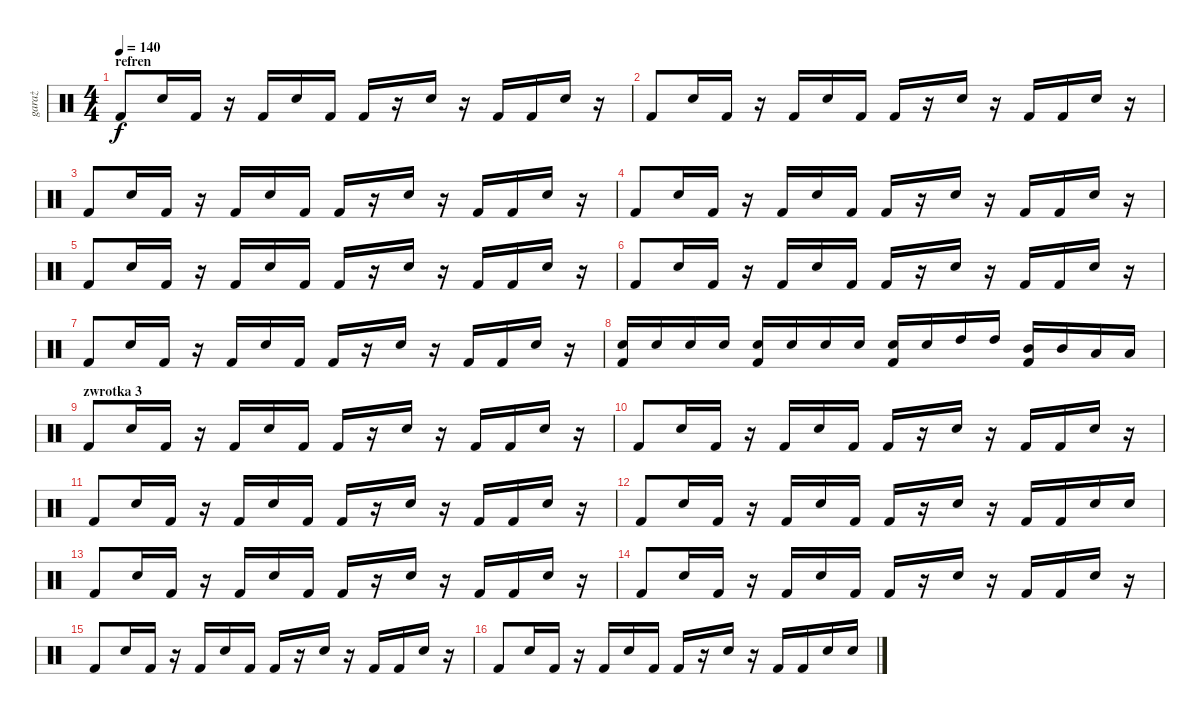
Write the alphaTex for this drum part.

\track ("garaż" "garaż") {instrument percussion}
\staff {score}
\articulation defaults
\ts (4 4)
\section ("" "refren")
\tempo 140
\clef neutral
\ks c "Kick (hit) 2".8{dy f} "Snare (hit) 2".16 "Kick (hit) 2".16
r.16 "Kick (hit) 2".16 "Snare (hit) 2".16 "Kick (hit) 2".16 "Kick (hit) 2".16 r.16 "Snare (hit) 2".16 r.16 "Kick (hit) 2".16 "Kick (hit) 2".16 "Snare (hit) 2".16 r.16 |
"Kick (hit) 2".8 "Snare (hit) 2".16 "Kick (hit) 2".16 r.16 "Kick (hit) 2".16 "Snare (hit) 2".16 "Kick (hit) 2".16 "Kick (hit) 2".16 r.16 "Snare (hit) 2".16 r.16 "Kick (hit) 2".16 "Kick (hit) 2".16 "Snare (hit) 2".16 r.16 |
"Kick (hit) 2".8 "Snare (hit) 2".16 "Kick (hit) 2".16 r.16 "Kick (hit) 2".16 "Snare (hit) 2".16 "Kick (hit) 2".16 "Kick (hit) 2".16 r.16 "Snare (hit) 2".16 r.16 "Kick (hit) 2".16 "Kick (hit) 2".16 "Snare (hit) 2".16 r.16 |
"Kick (hit) 2".8 "Snare (hit) 2".16 "Kick (hit) 2".16 r.16 "Kick (hit) 2".16 "Snare (hit) 2".16 "Kick (hit) 2".16 "Kick (hit) 2".16 r.16 "Snare (hit) 2".16 r.16 "Kick (hit) 2".16 "Kick (hit) 2".16 "Snare (hit) 2".16 r.16 |
"Kick (hit) 2".8 "Snare (hit) 2".16 "Kick (hit) 2".16 r.16 "Kick (hit) 2".16 "Snare (hit) 2".16 "Kick (hit) 2".16 "Kick (hit) 2".16 r.16 "Snare (hit) 2".16 r.16 "Kick (hit) 2".16 "Kick (hit) 2".16 "Snare (hit) 2".16 r.16 |
"Kick (hit) 2".8 "Snare (hit) 2".16 "Kick (hit) 2".16 r.16 "Kick (hit) 2".16 "Snare (hit) 2".16 "Kick (hit) 2".16 "Kick (hit) 2".16 r.16 "Snare (hit) 2".16 r.16 "Kick (hit) 2".16 "Kick (hit) 2".16 "Snare (hit) 2".16 r.16 |
"Kick (hit) 2".8 "Snare (hit) 2".16 "Kick (hit) 2".16 r.16 "Kick (hit) 2".16 "Snare (hit) 2".16 "Kick (hit) 2".16 "Kick (hit) 2".16 r.16 "Snare (hit) 2".16 r.16 "Kick (hit) 2".16 "Kick (hit) 2".16 "Snare (hit) 2".16 r.16 |
("Snare (hit) 2" "Kick (hit) 2").16 "Snare (hit) 2".16 "Snare (hit) 2".16 "Snare (hit) 2".16 ("Snare (hit) 2" "Kick (hit) 2").16 "Snare (hit) 2".16 "Snare (hit) 2".16 "Snare (hit) 2".16 ("Snare (hit) 2" "Kick (hit) 2").16 "Snare (hit) 2".16 "High Tom (hit)".16 "High Tom (hit)".16 ("Mid Tom (hit)" "Kick (hit) 2").16 "Mid Tom (hit)".16 "Low Tom (hit)".16 "Low Tom (hit)".16 |
\section ("" "zwrotka 3")
"Kick (hit) 2".8 "Snare (hit) 2".16 "Kick (hit) 2".16 r.16 "Kick (hit) 2".16 "Snare (hit) 2".16 "Kick (hit) 2".16 "Kick (hit) 2".16 r.16 "Snare (hit) 2".16 r.16 "Kick (hit) 2".16 "Kick (hit) 2".16 "Snare (hit) 2".16 r.16 |
"Kick (hit) 2".8 "Snare (hit) 2".16 "Kick (hit) 2".16 r.16 "Kick (hit) 2".16 "Snare (hit) 2".16 "Kick (hit) 2".16 "Kick (hit) 2".16 r.16 "Snare (hit) 2".16 r.16 "Kick (hit) 2".16 "Kick (hit) 2".16 "Snare (hit) 2".16 r.16 |
"Kick (hit) 2".8 "Snare (hit) 2".16 "Kick (hit) 2".16 r.16 "Kick (hit) 2".16 "Snare (hit) 2".16 "Kick (hit) 2".16 "Kick (hit) 2".16 r.16 "Snare (hit) 2".16 r.16 "Kick (hit) 2".16 "Kick (hit) 2".16 "Snare (hit) 2".16 r.16 |
"Kick (hit) 2".8 "Snare (hit) 2".16 "Kick (hit) 2".16 r.16 "Kick (hit) 2".16 "Snare (hit) 2".16 "Kick (hit) 2".16 "Kick (hit) 2".16 r.16 "Snare (hit) 2".16 r.16 "Kick (hit) 2".16 "Kick (hit) 2".16 "Snare (hit) 2".16 "Snare (hit) 2".16 |
"Kick (hit) 2".8 "Snare (hit) 2".16 "Kick (hit) 2".16 r.16 "Kick (hit) 2".16 "Snare (hit) 2".16 "Kick (hit) 2".16 "Kick (hit) 2".16 r.16 "Snare (hit) 2".16 r.16 "Kick (hit) 2".16 "Kick (hit) 2".16 "Snare (hit) 2".16 r.16 |
"Kick (hit) 2".8 "Snare (hit) 2".16 "Kick (hit) 2".16 r.16 "Kick (hit) 2".16 "Snare (hit) 2".16 "Kick (hit) 2".16 "Kick (hit) 2".16 r.16 "Snare (hit) 2".16 r.16 "Kick (hit) 2".16 "Kick (hit) 2".16 "Snare (hit) 2".16 r.16 |
"Kick (hit) 2".8 "Snare (hit) 2".16 "Kick (hit) 2".16 r.16 "Kick (hit) 2".16 "Snare (hit) 2".16 "Kick (hit) 2".16 "Kick (hit) 2".16 r.16 "Snare (hit) 2".16 r.16 "Kick (hit) 2".16 "Kick (hit) 2".16 "Snare (hit) 2".16 r.16 |
"Kick (hit) 2".8 "Snare (hit) 2".16 "Kick (hit) 2".16 r.16 "Kick (hit) 2".16 "Snare (hit) 2".16 "Kick (hit) 2".16 "Kick (hit) 2".16 r.16 "Snare (hit) 2".16 r.16 "Kick (hit) 2".16 "Kick (hit) 2".16 "Snare (hit) 2".16 "Snare (hit) 2".16
